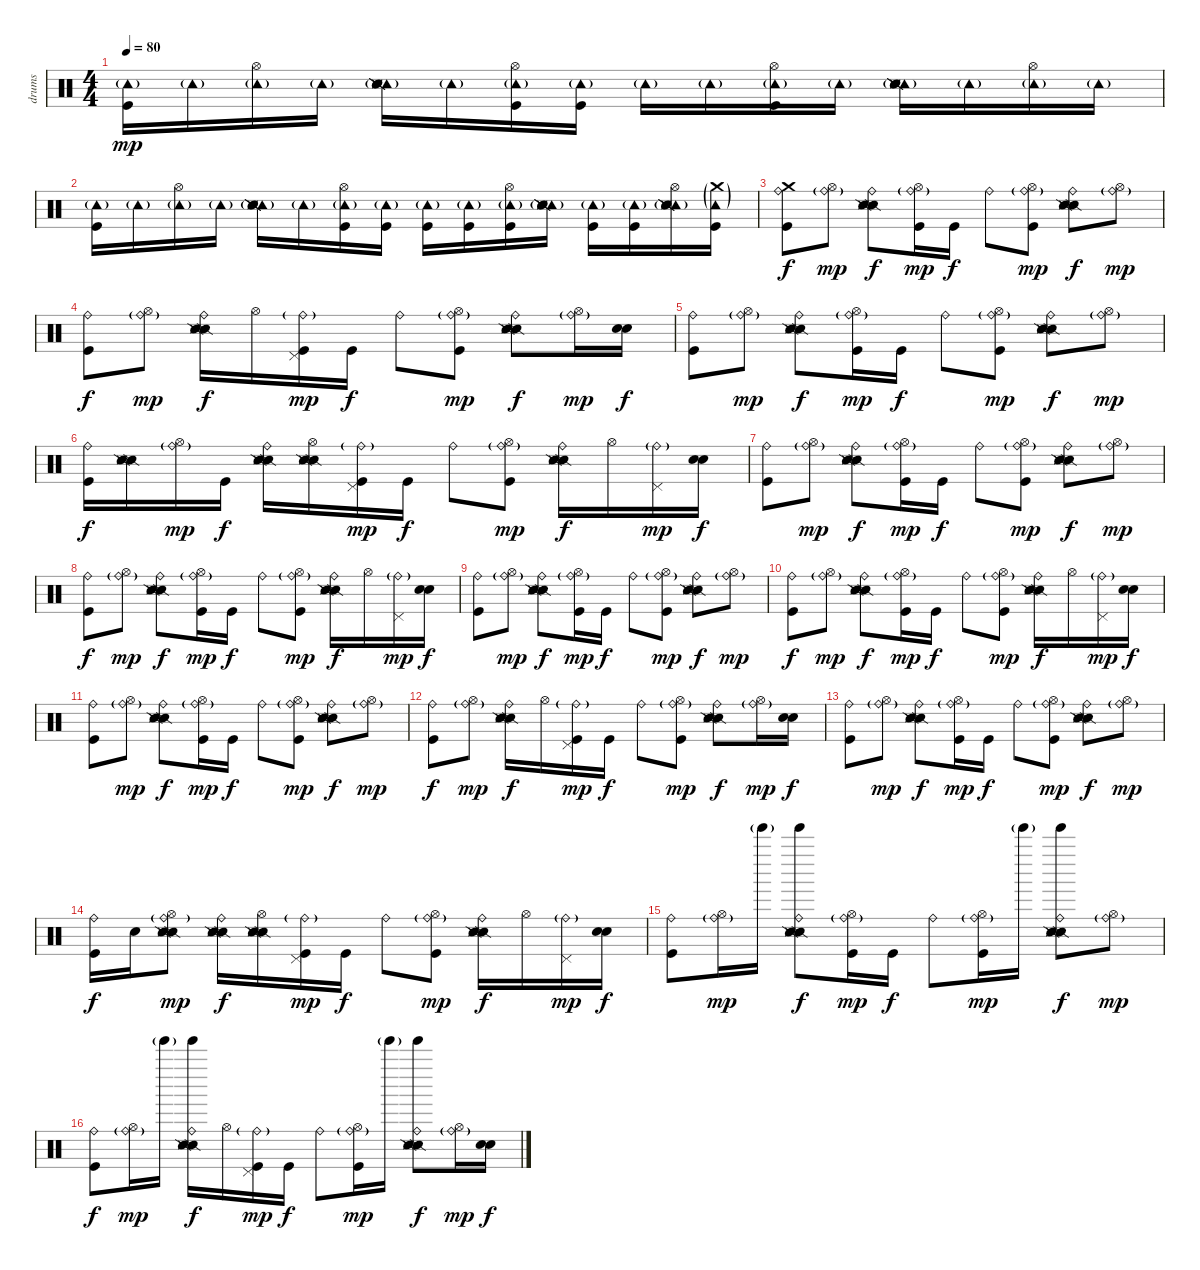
\track ("drums" "drums") {instrument percussion}
\staff {score}
\articulation defaults
\ts (4 4)
\tempo 80
\clef neutral
\ks c
("Tambourine (hit)"{g} "Kick (hit)").16{dy mp} "Tambourine (hit)"{g}.16 ("Tambourine (hit)"{g} "Hi-Hat (open)").16 "Tambourine (hit)"{g}.16 ("Tambourine (hit)"{g} "Snare (side stick) 2" "Snare (side stick) 2" "Metronome (hit)" "Metronome (hit)").16 "Tambourine (hit)"{g}.16 ("Tambourine (hit)"{g} "Hi-Hat (open)" "Kick (hit)").16 ("Tambourine (hit)"{g} "Kick (hit)").16 "Tambourine (hit)"{g}.16 "Tambourine (hit)"{g}.16 ("Tambourine (hit)"{g} "Hi-Hat (open)" "Kick (hit)").16 "Tambourine (hit)"{g}.16 ("Tambourine (hit)"{g} "Snare (side stick) 2" "Snare (side stick) 2" "Metronome (hit)" "Metronome (hit)").16 "Tambourine (hit)"{g}.16 ("Tambourine (hit)"{g} "Hi-Hat (open)").16 "Tambourine (hit)"{g}.16 |
("Tambourine (hit)"{g} "Kick (hit)").16 "Tambourine (hit)"{g}.16 ("Tambourine (hit)"{g} "Hi-Hat (open)").16 "Tambourine (hit)"{g}.16 ("Tambourine (hit)"{g} "Snare (side stick) 2" "Snare (side stick) 2" "Metronome (hit)" "Metronome (hit)").16 "Tambourine (hit)"{g}.16 ("Tambourine (hit)"{g} "Hi-Hat (open)" "Kick (hit)").16 ("Tambourine (hit)"{g} "Kick (hit)").16 ("Tambourine (hit)"{g} "Kick (hit)").16 ("Tambourine (hit)"{g} "Kick (hit)").16 ("Tambourine (hit)"{g} "Hi-Hat (open)" "Kick (hit)").16 ("Tambourine (hit)"{g} "Snare (side stick) 2" "Snare (side stick) 2" "Metronome (hit)" "Metronome (hit)").16 ("Tambourine (hit)"{g} "Kick (hit)").16 ("Tambourine (hit)"{g} "Kick (hit)").16 ("Tambourine (hit)"{g} "Hi-Hat (open)" "Snare (side stick) 2" "Snare (side stick) 2" "Metronome (hit)" "Metronome (hit)").16 ("Tambourine (hit)"{g} "Crash medium (hit)"{g} "Kick (hit)").16 |
("Ride (bell)" "Crash medium (hit)" "Kick (hit)").8{dy f} ("Ride (bell)"{g} "Hi-Hat (open)").8{dy mp} ("Ride (bell)" "Snare (side stick) 2" "Snare (side stick) 2" "Metronome (hit)" "Metronome (hit)").8{dy f} ("Ride (bell)"{g} "Hi-Hat (open)" "Kick (hit)").16{dy mp} "Kick (hit)".16{dy f} "Ride (bell)".8 ("Ride (bell)"{g} "Hi-Hat (open)" "Kick (hit)").8{dy mp} ("Ride (bell)" "Snare (side stick) 2" "Snare (side stick) 2" "Metronome (hit)" "Metronome (hit)").8{dy f} ("Ride (bell)"{g} "Hi-Hat (open)").8{dy mp} |
("Ride (bell)" "Kick (hit)").8{dy f} ("Ride (bell)"{g} "Hi-Hat (open)").8{dy mp} ("Ride (bell)" "Snare (side stick) 2" "Snare (side stick) 2" "Metronome (hit)" "Metronome (hit)").16{dy f} "Hi-Hat (open)".16 ("Ride (bell)"{g} "Pedal Hi-Hat (hit)" "Kick (hit)").16{dy mp} "Kick (hit)".16{dy f} "Ride (bell)".8 ("Ride (bell)"{g} "Hi-Hat (open)" "Kick (hit)").8{dy mp} ("Ride (bell)" "Snare (side stick) 2" "Snare (side stick) 2" "Metronome (hit)" "Metronome (hit)").8{dy f} ("Ride (bell)"{g} "Hi-Hat (open)").16{dy mp} ("Snare (hit) 2" "Snare (hit) 2").16{dy f} |
("Ride (bell)" "Kick (hit)").8 ("Ride (bell)"{g} "Hi-Hat (open)").8{dy mp} ("Ride (bell)" "Snare (side stick) 2" "Snare (side stick) 2" "Metronome (hit)" "Metronome (hit)").8{dy f} ("Ride (bell)"{g} "Hi-Hat (open)" "Kick (hit)").16{dy mp} "Kick (hit)".16{dy f} "Ride (bell)".8 ("Ride (bell)"{g} "Hi-Hat (open)" "Kick (hit)").8{dy mp} ("Ride (bell)" "Snare (side stick) 2" "Snare (side stick) 2" "Metronome (hit)" "Metronome (hit)").8{dy f} ("Ride (bell)"{g} "Hi-Hat (open)").8{dy mp} |
("Ride (bell)" "Kick (hit)").16{dy f} ("Snare (side stick) 2" "Snare (side stick) 2" "Metronome (hit)" "Metronome (hit)").16 ("Ride (bell)"{g} "Hi-Hat (open)").16{dy mp} "Kick (hit)".16{dy f} ("Ride (bell)" "Snare (side stick) 2" "Snare (side stick) 2" "Metronome (hit)" "Metronome (hit)").16 ("Hi-Hat (open)" "Snare (side stick) 2" "Snare (side stick) 2" "Metronome (hit)" "Metronome (hit)").16 ("Ride (bell)"{g} "Pedal Hi-Hat (hit)" "Kick (hit)").16{dy mp} "Kick (hit)".16{dy f} "Ride (bell)".8 ("Ride (bell)"{g} "Hi-Hat (open)" "Kick (hit)").8{dy mp} ("Ride (bell)" "Snare (side stick) 2" "Snare (side stick) 2" "Metronome (hit)" "Metronome (hit)").16{dy f} "Hi-Hat (open)".16 ("Ride (bell)"{g} "Pedal Hi-Hat (hit)").16{dy mp} ("Snare (hit) 2" "Snare (hit) 2").16{dy f} |
("Ride (bell)" "Kick (hit)").8 ("Ride (bell)"{g} "Hi-Hat (open)").8{dy mp} ("Ride (bell)" "Snare (side stick) 2" "Snare (side stick) 2" "Metronome (hit)" "Metronome (hit)").8{dy f} ("Ride (bell)"{g} "Hi-Hat (open)" "Kick (hit)").16{dy mp} "Kick (hit)".16{dy f} "Ride (bell)".8 ("Ride (bell)"{g} "Hi-Hat (open)" "Kick (hit)").8{dy mp} ("Ride (bell)" "Snare (side stick) 2" "Snare (side stick) 2" "Metronome (hit)" "Metronome (hit)").8{dy f} ("Ride (bell)"{g} "Hi-Hat (open)").8{dy mp} |
("Ride (bell)" "Kick (hit)").8{dy f} ("Ride (bell)"{g} "Hi-Hat (open)").8{dy mp} ("Ride (bell)" "Snare (side stick) 2" "Snare (side stick) 2" "Metronome (hit)" "Metronome (hit)").8{dy f} ("Ride (bell)"{g} "Hi-Hat (open)" "Kick (hit)").16{dy mp} "Kick (hit)".16{dy f} "Ride (bell)".8 ("Ride (bell)"{g} "Hi-Hat (open)" "Kick (hit)").8{dy mp} ("Ride (bell)" "Snare (side stick) 2" "Snare (side stick) 2" "Metronome (hit)" "Metronome (hit)").16{dy f} "Hi-Hat (open)".16 ("Ride (bell)"{g} "Pedal Hi-Hat (hit)").16{dy mp} ("Snare (hit) 2" "Snare (hit) 2").16{dy f} |
("Ride (bell)" "Kick (hit)").8 ("Ride (bell)"{g} "Hi-Hat (open)").8{dy mp} ("Ride (bell)" "Snare (side stick) 2" "Snare (side stick) 2" "Metronome (hit)" "Metronome (hit)").8{dy f} ("Ride (bell)"{g} "Hi-Hat (open)" "Kick (hit)").16{dy mp} "Kick (hit)".16{dy f} "Ride (bell)".8 ("Ride (bell)"{g} "Hi-Hat (open)" "Kick (hit)").8{dy mp} ("Ride (bell)" "Snare (side stick) 2" "Snare (side stick) 2" "Metronome (hit)" "Metronome (hit)").8{dy f} ("Ride (bell)"{g} "Hi-Hat (open)").8{dy mp} |
("Ride (bell)" "Kick (hit)").8{dy f} ("Ride (bell)"{g} "Hi-Hat (open)").8{dy mp} ("Ride (bell)" "Snare (side stick) 2" "Snare (side stick) 2" "Metronome (hit)" "Metronome (hit)").8{dy f} ("Ride (bell)"{g} "Hi-Hat (open)" "Kick (hit)").16{dy mp} "Kick (hit)".16{dy f} "Ride (bell)".8 ("Ride (bell)"{g} "Hi-Hat (open)" "Kick (hit)").8{dy mp} ("Ride (bell)" "Snare (side stick) 2" "Snare (side stick) 2" "Metronome (hit)" "Metronome (hit)").16{dy f} "Hi-Hat (open)".16 ("Ride (bell)"{g} "Pedal Hi-Hat (hit)").16{dy mp} ("Snare (hit) 2" "Snare (hit) 2").16{dy f} |
("Ride (bell)" "Kick (hit)").8 ("Ride (bell)"{g} "Hi-Hat (open)").8{dy mp} ("Ride (bell)" "Snare (side stick) 2" "Snare (side stick) 2" "Metronome (hit)" "Metronome (hit)").8{dy f} ("Ride (bell)"{g} "Hi-Hat (open)" "Kick (hit)").16{dy mp} "Kick (hit)".16{dy f} "Ride (bell)".8 ("Ride (bell)"{g} "Hi-Hat (open)" "Kick (hit)").8{dy mp} ("Ride (bell)" "Snare (side stick) 2" "Snare (side stick) 2" "Metronome (hit)" "Metronome (hit)").8{dy f} ("Ride (bell)"{g} "Hi-Hat (open)").8{dy mp} |
("Ride (bell)" "Kick (hit)").8{dy f} ("Ride (bell)"{g} "Hi-Hat (open)").8{dy mp} ("Ride (bell)" "Snare (side stick) 2" "Snare (side stick) 2" "Metronome (hit)" "Metronome (hit)").16{dy f} "Hi-Hat (open)".16 ("Ride (bell)"{g} "Pedal Hi-Hat (hit)" "Kick (hit)").16{dy mp} "Kick (hit)".16{dy f} "Ride (bell)".8 ("Ride (bell)"{g} "Hi-Hat (open)" "Kick (hit)").8{dy mp} ("Ride (bell)" "Snare (side stick) 2" "Snare (side stick) 2" "Metronome (hit)" "Metronome (hit)").8{dy f} ("Ride (bell)"{g} "Hi-Hat (open)").16{dy mp} ("Snare (hit) 2" "Snare (hit) 2").16{dy f} |
("Ride (bell)" "Kick (hit)").8 ("Ride (bell)"{g} "Hi-Hat (open)").8{dy mp} ("Ride (bell)" "Snare (side stick) 2" "Snare (side stick) 2" "Metronome (hit)" "Metronome (hit)").8{dy f} ("Ride (bell)"{g} "Hi-Hat (open)" "Kick (hit)").16{dy mp} "Kick (hit)".16{dy f} "Ride (bell)".8 ("Ride (bell)"{g} "Hi-Hat (open)" "Kick (hit)").8{dy mp} ("Ride (bell)" "Snare (side stick) 2" "Snare (side stick) 2" "Metronome (hit)" "Metronome (hit)").8{dy f} ("Ride (bell)"{g} "Hi-Hat (open)").8{dy mp} |
("Ride (bell)" "Kick (hit)").16{dy f} "Snare (hit) 2".16 ("Ride (bell)"{g} "Hi-Hat (open)" "Snare (side stick) 2" "Snare (side stick) 2" "Metronome (hit)" "Metronome (hit)").8{dy mp} ("Ride (bell)" "Snare (side stick) 2" "Snare (side stick) 2" "Metronome (hit)" "Metronome (hit)").16{dy f} ("Hi-Hat (open)" "Snare (side stick) 2" "Snare (side stick) 2" "Metronome (hit)" "Metronome (hit)").16 ("Ride (bell)"{g} "Pedal Hi-Hat (hit)" "Kick (hit)").16{dy mp} "Kick (hit)".16{dy f} "Ride (bell)".8 ("Ride (bell)"{g} "Hi-Hat (open)" "Kick (hit)").8{dy mp} ("Ride (bell)" "Snare (side stick) 2" "Snare (side stick) 2" "Metronome (hit)" "Metronome (hit)").16{dy f} "Hi-Hat (open)".16 ("Ride (bell)"{g} "Pedal Hi-Hat (hit)").16{dy mp} ("Snare (hit) 2" "Snare (hit) 2").16{dy f} |
("Ride (bell)" "Kick (hit)").8 ("Ride (bell)"{g} "Hi-Hat (open)").16{dy mp} "Tinkle Bell (hit)"{g}.16 ("Ride (bell)" "Snare (side stick) 2" "Snare (side stick) 2" "Metronome (hit)" "Metronome (hit)" "Tinkle Bell (hit)").8{dy f} ("Ride (bell)"{g} "Hi-Hat (open)" "Kick (hit)").16{dy mp} "Kick (hit)".16{dy f} "Ride (bell)".8 ("Ride (bell)"{g} "Hi-Hat (open)" "Kick (hit)").16{dy mp} "Tinkle Bell (hit)"{g}.16 ("Ride (bell)" "Snare (side stick) 2" "Snare (side stick) 2" "Metronome (hit)" "Metronome (hit)" "Tinkle Bell (hit)").8{dy f} ("Ride (bell)"{g} "Hi-Hat (open)").8{dy mp} |
("Ride (bell)" "Kick (hit)").8{dy f} ("Ride (bell)"{g} "Hi-Hat (open)").16{dy mp} "Tinkle Bell (hit)"{g}.16 ("Ride (bell)" "Snare (side stick) 2" "Snare (side stick) 2" "Metronome (hit)" "Metronome (hit)" "Tinkle Bell (hit)").16{dy f} "Hi-Hat (open)".16 ("Ride (bell)"{g} "Pedal Hi-Hat (hit)" "Kick (hit)").16{dy mp} "Kick (hit)".16{dy f} "Ride (bell)".8 ("Ride (bell)"{g} "Hi-Hat (open)" "Kick (hit)").16{dy mp} "Tinkle Bell (hit)"{g}.16 ("Ride (bell)" "Snare (side stick) 2" "Snare (side stick) 2" "Metronome (hit)" "Metronome (hit)" "Tinkle Bell (hit)").8{dy f} ("Ride (bell)"{g} "Hi-Hat (open)").16{dy mp} ("Snare (hit) 2" "Snare (hit) 2").16{dy f}
